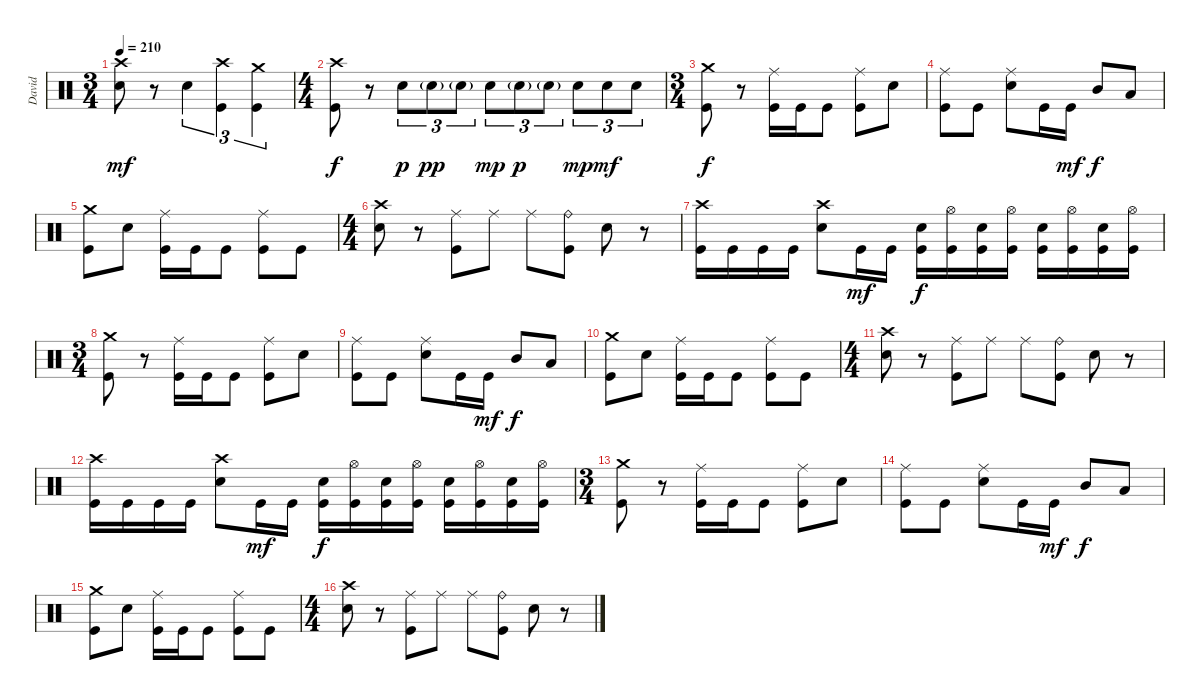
\track ("David" "David") {instrument percussion}
\staff {score}
\articulation defaults
\ts (3 4)
\tempo 210
\clef neutral
\ks c
("Crash high (hit)" "Electric Snare (hit)").8{dy mf} r.8 "Electric Snare (hit)".4{tu (3 2)} ("Crash high (hit)" "Kick (hit)").4{tu (3 2)} ("Crash medium (hit)" "Kick (hit)").4{tu (3 2)} |
\ts (4 4)
("Crash high (hit)" "Kick (hit)").8{dy f} r.8 "Electric Snare (hit)".8{tu (3 2) dy p} "Electric Snare (hit)"{g}.8{tu (3 2) dy pp} "Electric Snare (hit)"{g}.8{tu (3 2)} "Electric Snare (hit)".8{tu (3 2) dy mp} "Electric Snare (hit)"{g}.8{tu (3 2) dy p} "Electric Snare (hit)"{g}.8{tu (3 2)} "Electric Snare (hit)".8{tu (3 2) dy mp} "Electric Snare (hit)".8{tu (3 2) dy mf} "Electric Snare (hit)".8{tu (3 2)} |
\ts (3 4)
("Crash medium (hit)" "Kick (hit)").8{dy f} r.8 ("Ride (middle)" "Kick (hit)").16 "Kick (hit)".16 "Kick (hit)".8 ("Ride (middle)" "Kick (hit)").8 "Electric Snare (hit)".8 |
("Ride (middle)" "Kick (hit)").8 "Kick (hit)".8 ("Ride (middle)" "Electric Snare (hit)").8 "Kick (hit)".16 "Kick (hit)".16{dy mf} "Mid Tom (hit)".8{dy f} "Low Tom (hit)".8 |
("Crash medium (hit)" "Kick (hit)").8 "Electric Snare (hit)".8 ("Ride (middle)" "Kick (hit)").16 "Kick (hit)".16 "Kick (hit)".8 ("Ride (middle)" "Kick (hit)").8 "Kick (hit)".8 |
\ts (4 4)
("Crash high (hit)" "Electric Snare (hit)").8 r.8 ("Ride (middle)" "Kick (hit)").8 "Ride (middle)".8 "Ride (middle)".8 ("Ride (bell)" "Kick (hit)").8 "Electric Snare (hit)".8 r.8 |
("Crash high (hit)" "Kick (hit)").16 "Kick (hit)".16 "Kick (hit)".16 "Kick (hit)".16 ("Crash high (hit)" "Electric Snare (hit)").8 "Kick (hit)".16{dy mf} "Kick (hit)".16 ("Electric Snare (hit)" "Kick (hit)").16{dy f} ("Hi-Hat (open)" "Kick (hit)").16 ("Electric Snare (hit)" "Kick (hit)").16 ("Hi-Hat (open)" "Kick (hit)").16 ("Electric Snare (hit)" "Kick (hit)").16 ("Hi-Hat (open)" "Kick (hit)").16 ("Electric Snare (hit)" "Kick (hit)").16 ("Hi-Hat (open)" "Kick (hit)").16 |
\ts (3 4)
("Crash medium (hit)" "Kick (hit)").8 r.8 ("Ride (middle)" "Kick (hit)").16 "Kick (hit)".16 "Kick (hit)".8 ("Ride (middle)" "Kick (hit)").8 "Electric Snare (hit)".8 |
("Ride (middle)" "Kick (hit)").8 "Kick (hit)".8 ("Ride (middle)" "Electric Snare (hit)").8 "Kick (hit)".16 "Kick (hit)".16{dy mf} "Mid Tom (hit)".8{dy f} "Low Tom (hit)".8 |
("Crash medium (hit)" "Kick (hit)").8 "Electric Snare (hit)".8 ("Ride (middle)" "Kick (hit)").16 "Kick (hit)".16 "Kick (hit)".8 ("Ride (middle)" "Kick (hit)").8 "Kick (hit)".8 |
\ts (4 4)
("Crash high (hit)" "Electric Snare (hit)").8 r.8 ("Ride (middle)" "Kick (hit)").8 "Ride (middle)".8 "Ride (middle)".8 ("Ride (bell)" "Kick (hit)").8 "Electric Snare (hit)".8 r.8 |
("Crash high (hit)" "Kick (hit)").16 "Kick (hit)".16 "Kick (hit)".16 "Kick (hit)".16 ("Crash high (hit)" "Electric Snare (hit)").8 "Kick (hit)".16{dy mf} "Kick (hit)".16 ("Electric Snare (hit)" "Kick (hit)").16{dy f} ("Hi-Hat (open)" "Kick (hit)").16 ("Electric Snare (hit)" "Kick (hit)").16 ("Hi-Hat (open)" "Kick (hit)").16 ("Electric Snare (hit)" "Kick (hit)").16 ("Hi-Hat (open)" "Kick (hit)").16 ("Electric Snare (hit)" "Kick (hit)").16 ("Hi-Hat (open)" "Kick (hit)").16 |
\ts (3 4)
("Crash medium (hit)" "Kick (hit)").8 r.8 ("Ride (middle)" "Kick (hit)").16 "Kick (hit)".16 "Kick (hit)".8 ("Ride (middle)" "Kick (hit)").8 "Electric Snare (hit)".8 |
("Ride (middle)" "Kick (hit)").8 "Kick (hit)".8 ("Ride (middle)" "Electric Snare (hit)").8 "Kick (hit)".16 "Kick (hit)".16{dy mf} "Mid Tom (hit)".8{dy f} "Low Tom (hit)".8 |
("Crash medium (hit)" "Kick (hit)").8 "Electric Snare (hit)".8 ("Ride (middle)" "Kick (hit)").16 "Kick (hit)".16 "Kick (hit)".8 ("Ride (middle)" "Kick (hit)").8 "Kick (hit)".8 |
\ts (4 4)
("Crash high (hit)" "Electric Snare (hit)").8 r.8 ("Ride (middle)" "Kick (hit)").8 "Ride (middle)".8 "Ride (middle)".8 ("Ride (bell)" "Kick (hit)").8 "Electric Snare (hit)".8 r.8
